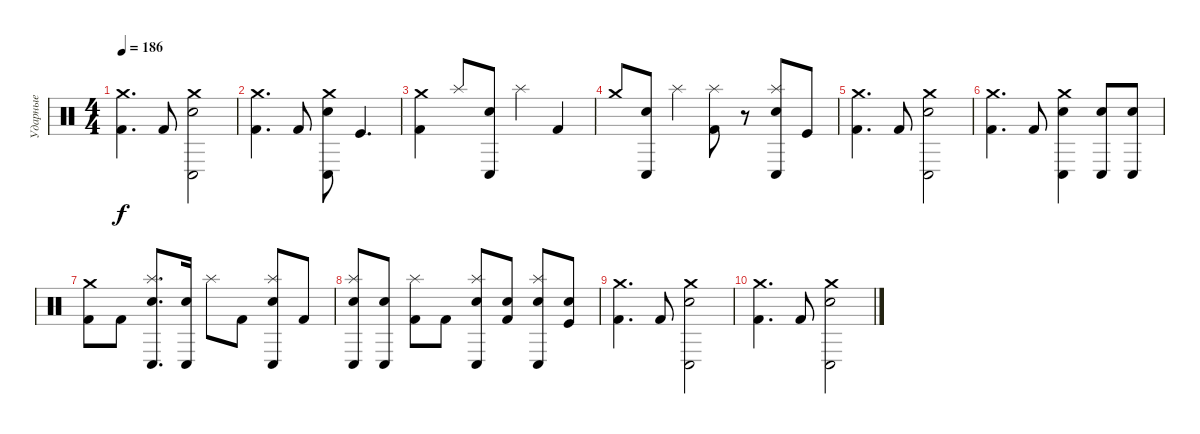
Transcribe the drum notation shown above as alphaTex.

\track ("Ударные" "Ударные") {instrument percussion}
\staff {score}
\articulation defaults
\ts (4 4)
\tempo 186
\clef neutral
\ks c
("Crash medium (hit)" "Kick (hit) 2").4{d dy f} "Kick (hit) 2".8 ("Crash medium (hit)" "Conga low (hit)" "Electric Snare (hit)").2 |
("Crash medium (hit)" "Kick (hit) 2").4{d} "Kick (hit) 2".8 ("Crash medium (hit)" "Conga low (hit)" "Electric Snare (hit)").8 "Kick (hit)".4{d} |
("Crash medium (hit)" "Kick (hit) 2").4 "Splash (hit)".8 ("Conga low (hit)" "Electric Snare (hit)").8 "Splash (hit)".4 "Kick (hit) 2".4 |
"Crash medium (hit)".8 ("Conga low (hit)" "Electric Snare (hit)").8 "Splash (hit)".4 ("Splash (hit)" "Kick (hit) 2").8 r.8 ("Splash (hit)" "Conga low (hit)" "Electric Snare (hit)").8 "Kick (hit)".8 |
("Crash medium (hit)" "Kick (hit) 2").4{d} "Kick (hit) 2".8 ("Crash medium (hit)" "Conga low (hit)" "Electric Snare (hit)").2 |
("Crash medium (hit)" "Kick (hit) 2").4{d} "Kick (hit) 2".8 ("Crash medium (hit)" "Conga low (hit)" "Electric Snare (hit)").4 ("Conga low (hit)" "Electric Snare (hit)").8 ("Conga low (hit)" "Electric Snare (hit)").8 |
("Crash medium (hit)" "Kick (hit) 2").8 "Kick (hit) 2".8 ("Splash (hit)" "Conga low (hit)" "Electric Snare (hit)").8{d} ("Conga low (hit)" "Electric Snare (hit)").16 "Splash (hit)".8 "Kick (hit) 2".8 ("Splash (hit)" "Conga low (hit)" "Electric Snare (hit)").8 "Kick (hit) 2".8 |
("Splash (hit)" "Conga low (hit)" "Electric Snare (hit)").8 ("Conga low (hit)" "Electric Snare (hit)").8 ("Splash (hit)" "Kick (hit) 2").8 "Kick (hit) 2".8 ("Splash (hit)" "Conga low (hit)" "Electric Snare (hit)").8 ("Electric Snare (hit)" "Kick (hit) 2").8 ("Splash (hit)" "Conga low (hit)" "Electric Snare (hit)").8 ("Electric Snare (hit)" "Kick (hit)").8 |
("Crash medium (hit)" "Kick (hit) 2").4{d} "Kick (hit) 2".8 ("Crash medium (hit)" "Conga low (hit)" "Electric Snare (hit)").2 |
("Crash medium (hit)" "Kick (hit) 2").4{d} "Kick (hit) 2".8 ("Crash medium (hit)" "Conga low (hit)" "Electric Snare (hit)").2
